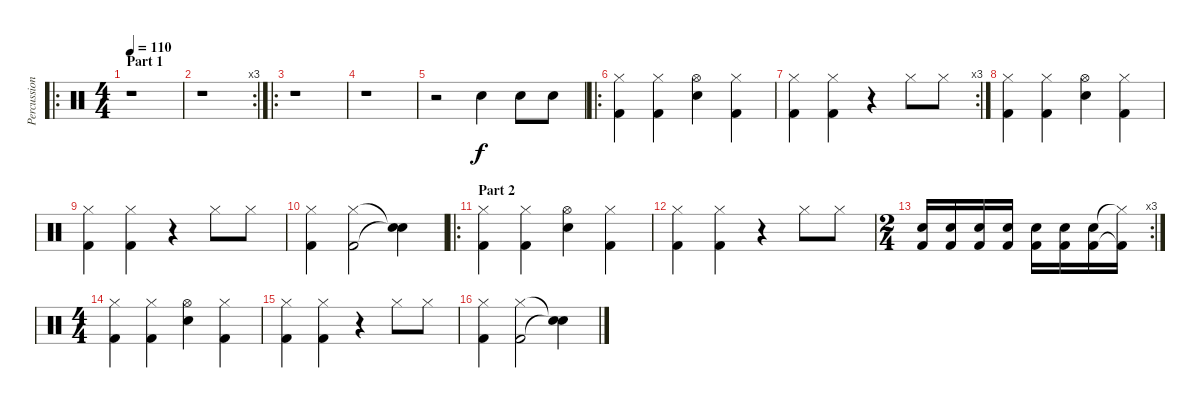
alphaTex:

\track ("Percussion" "Percussion") {instrument percussion}
\staff {score}
\articulation defaults
\ro
\ts (4 4)
\section ("" "Part 1")
\tempo 110
\clef neutral
\ks c
r.1{dy f} |
\rc 3
r.1 |
\ro
r.1 |
r.1 |
r.2 "Electric Snare (hit)".4 "Electric Snare (hit)".8 "Electric Snare (hit)".8 |
\ro
("Hi-Hat (closed)" "Kick (hit) 2").4 ("Hi-Hat (closed)" "Kick (hit) 2").4 ("Snare (hit) 2" "Hi-Hat (open)").4 ("Hi-Hat (closed)" "Kick (hit) 2").4 |
\rc 3
("Hi-Hat (closed)" "Kick (hit) 2").4 ("Hi-Hat (closed)" "Kick (hit) 2").4 r.4 "Hi-Hat (closed)".8 "Hi-Hat (closed)".8 |
("Hi-Hat (closed)" "Kick (hit) 2").4 ("Hi-Hat (closed)" "Kick (hit) 2").4 ("Snare (hit) 2" "Hi-Hat (open)").4 ("Hi-Hat (closed)" "Kick (hit) 2").4 |
("Hi-Hat (closed)" "Kick (hit) 2").4 ("Hi-Hat (closed)" "Kick (hit) 2").4 r.4 "Hi-Hat (closed)".8 "Hi-Hat (closed)".8 |
("Hi-Hat (closed)" "Kick (hit) 2").4 ("Hi-Hat (closed)" "Kick (hit) 2").2 ("Snare (hit)"{t} "Snare (hit)"{t}).4 |
\ro
\section ("" "Part 2")
("Hi-Hat (closed)" "Kick (hit) 2").4 ("Hi-Hat (closed)" "Kick (hit) 2").4 ("Snare (hit) 2" "Hi-Hat (open)").4 ("Hi-Hat (closed)" "Kick (hit) 2").4 |
("Hi-Hat (closed)" "Kick (hit) 2").4 ("Hi-Hat (closed)" "Kick (hit) 2").4 r.4 "Hi-Hat (closed)".8 "Hi-Hat (closed)".8 |
\rc 3
\ts (2 4)
("Snare (hit) 2" "Kick (hit) 2").16 ("Snare (hit) 2" "Kick (hit) 2").16 ("Snare (hit) 2" "Kick (hit) 2").16 ("Snare (hit) 2" "Kick (hit) 2").16 ("Snare (hit) 2" "Kick (hit) 2").16 ("Snare (hit) 2" "Kick (hit) 2").16 ("Snare (hit) 2" "Kick (hit) 2").16 ("Hi-Hat (closed)"{t} "Kick (hit) 2"{t}).16 |
\ts (4 4)
("Hi-Hat (closed)" "Kick (hit) 2").4 ("Hi-Hat (closed)" "Kick (hit) 2").4 ("Snare (hit) 2" "Hi-Hat (open)").4 ("Hi-Hat (closed)" "Kick (hit) 2").4 |
("Hi-Hat (closed)" "Kick (hit) 2").4 ("Hi-Hat (closed)" "Kick (hit) 2").4 r.4 "Hi-Hat (closed)".8 "Hi-Hat (closed)".8 |
("Hi-Hat (closed)" "Kick (hit) 2").4 ("Hi-Hat (closed)" "Kick (hit) 2").2 ("Snare (hit)"{t} "Snare (hit)"{t}).4
